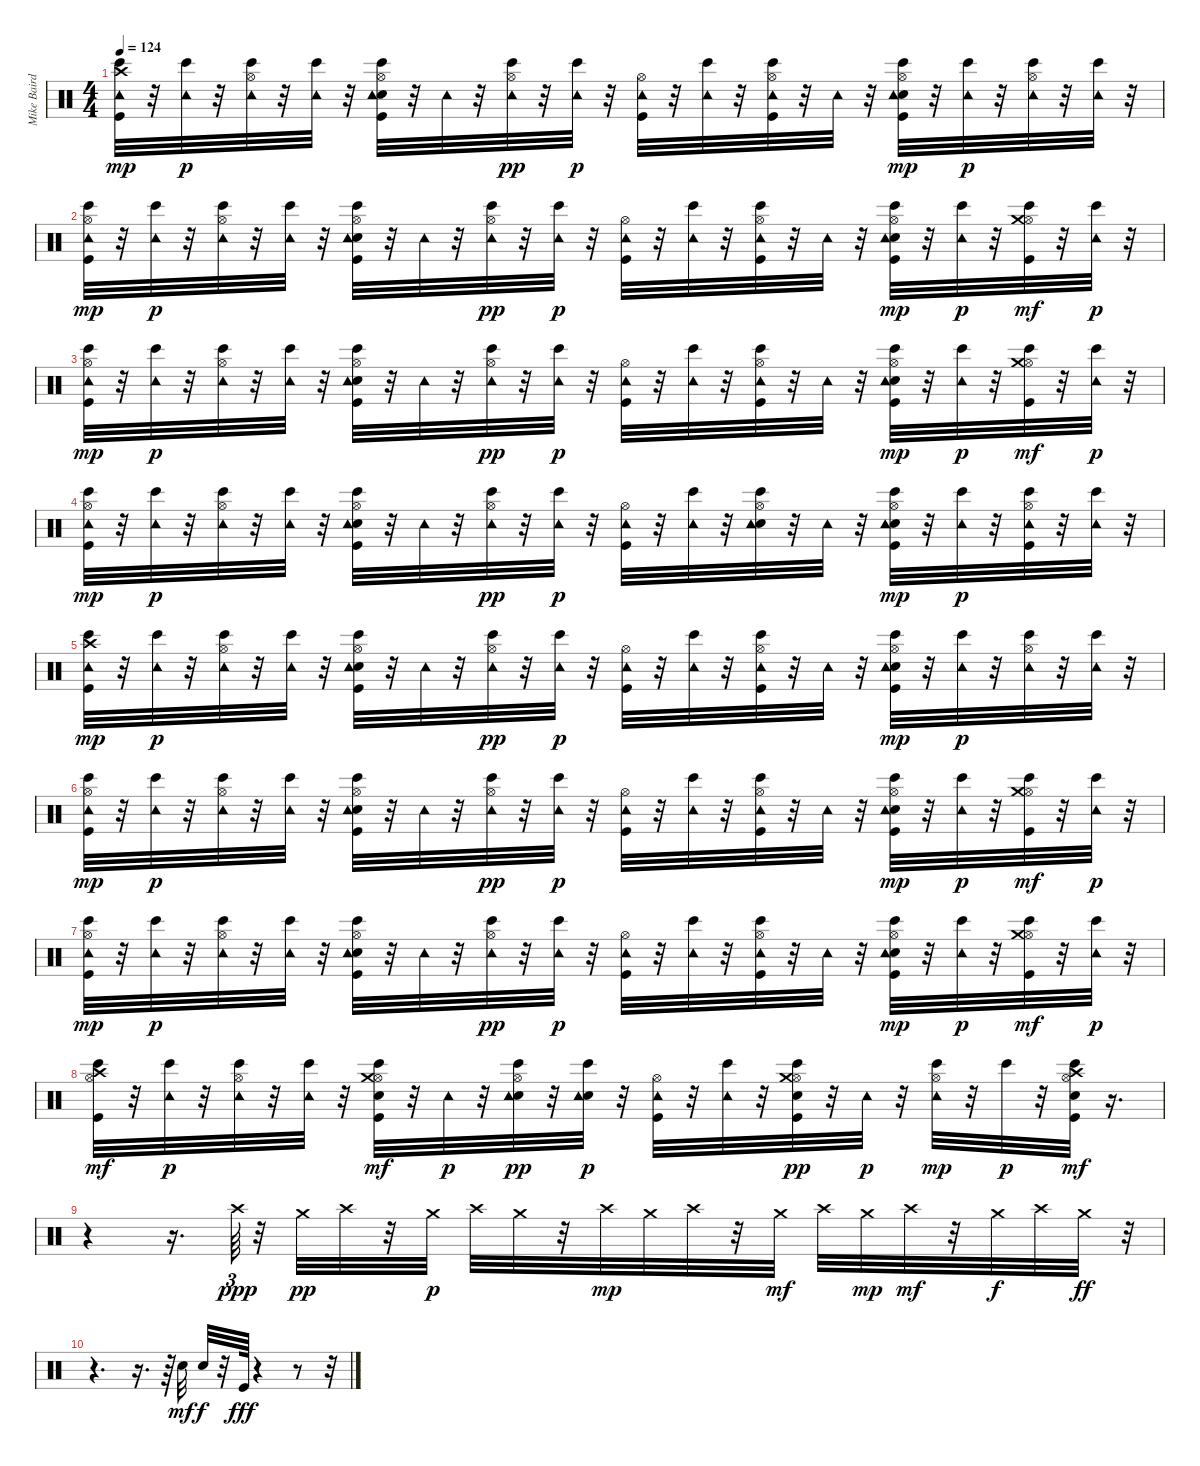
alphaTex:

\track ("Mike Baird [drums]" "Mike Baird") {instrument percussion}
\staff {score}
\articulation defaults
\ts (4 4)
\tempo 124
\clef neutral
\ks c
("Bongo High (hit)" "Kick (hit)" "Crash high (hit)" "Tambourine (hit)").32{dy mp} r.32 ("Tambourine (hit)" "Bongo High (hit)").32{dy p} r.32 ("Hi-Hat (open)" "Tambourine (hit)" "Bongo High (hit)").32 r.32 ("Tambourine (hit)" "Bongo High (hit)").32 r.32 ("Kick (hit)" "Electric Snare (hit)" "Hi-Hat (open)" "Bongo High (hit)" "Tambourine (hit)").32 r.32 "Tambourine (hit)".32 r.32 ("Hi-Hat (open)" "Tambourine (hit)" "Bongo High (hit)").32{dy pp} r.32 ("Bongo High (hit)" "Tambourine (hit)").32{dy p} r.32 ("Kick (hit)" "Hi-Hat (open)" "Tambourine (hit)").32 r.32 ("Bongo High (hit)" "Tambourine (hit)").32 r.32 ("Bongo High (hit)" "Kick (hit)" "Hi-Hat (open)" "Tambourine (hit)").32 r.32 "Tambourine (hit)".32 r.32 ("Bongo High (hit)" "Kick (hit)" "Electric Snare (hit)" "Hi-Hat (open)" "Tambourine (hit)").32{dy mp} r.32 ("Tambourine (hit)" "Bongo High (hit)").32{dy p} r.32 ("Bongo High (hit)" "Hi-Hat (open)" "Tambourine (hit)").32 r.32 ("Tambourine (hit)" "Bongo High (hit)").32 r.32 |
("Bongo High (hit)" "Kick (hit)" "Hi-Hat (open)" "Tambourine (hit)").32{dy mp} r.32 ("Tambourine (hit)" "Bongo High (hit)").32{dy p} r.32 ("Hi-Hat (open)" "Tambourine (hit)" "Bongo High (hit)").32 r.32 ("Tambourine (hit)" "Bongo High (hit)").32 r.32 ("Kick (hit)" "Electric Snare (hit)" "Hi-Hat (open)" "Bongo High (hit)" "Tambourine (hit)").32 r.32 "Tambourine (hit)".32 r.32 ("Hi-Hat (open)" "Tambourine (hit)" "Bongo High (hit)").32{dy pp} r.32 ("Bongo High (hit)" "Tambourine (hit)").32{dy p} r.32 ("Kick (hit)" "Hi-Hat (open)" "Tambourine (hit)").32 r.32 ("Bongo High (hit)" "Tambourine (hit)").32 r.32 ("Bongo High (hit)" "Kick (hit)" "Hi-Hat (open)" "Tambourine (hit)").32 r.32 "Tambourine (hit)".32 r.32 ("Bongo High (hit)" "Kick (hit)" "Electric Snare (hit)" "Hi-Hat (open)" "Tambourine (hit)").32{dy mp} r.32 ("Tambourine (hit)" "Bongo High (hit)").32{dy p} r.32 ("Bongo High (hit)" "Kick (hit)" "Hi-Hat (open)" "Crash medium (hit)").32{dy mf} r.32 ("Tambourine (hit)" "Bongo High (hit)").32{dy p} r.32 |
("Bongo High (hit)" "Kick (hit)" "Hi-Hat (open)" "Tambourine (hit)").32{dy mp} r.32 ("Tambourine (hit)" "Bongo High (hit)").32{dy p} r.32 ("Hi-Hat (open)" "Tambourine (hit)" "Bongo High (hit)").32 r.32 ("Tambourine (hit)" "Bongo High (hit)").32 r.32 ("Kick (hit)" "Electric Snare (hit)" "Hi-Hat (open)" "Bongo High (hit)" "Tambourine (hit)").32 r.32 "Tambourine (hit)".32 r.32 ("Hi-Hat (open)" "Tambourine (hit)" "Bongo High (hit)").32{dy pp} r.32 ("Bongo High (hit)" "Tambourine (hit)").32{dy p} r.32 ("Kick (hit)" "Hi-Hat (open)" "Tambourine (hit)").32 r.32 ("Bongo High (hit)" "Tambourine (hit)").32 r.32 ("Bongo High (hit)" "Kick (hit)" "Hi-Hat (open)" "Tambourine (hit)").32 r.32 "Tambourine (hit)".32 r.32 ("Bongo High (hit)" "Kick (hit)" "Electric Snare (hit)" "Hi-Hat (open)" "Tambourine (hit)").32{dy mp} r.32 ("Tambourine (hit)" "Bongo High (hit)").32{dy p} r.32 ("Bongo High (hit)" "Kick (hit)" "Hi-Hat (open)" "Crash medium (hit)").32{dy mf} r.32 ("Tambourine (hit)" "Bongo High (hit)").32{dy p} r.32 |
("Bongo High (hit)" "Kick (hit)" "Hi-Hat (open)" "Tambourine (hit)").32{dy mp} r.32 ("Tambourine (hit)" "Bongo High (hit)").32{dy p} r.32 ("Hi-Hat (open)" "Tambourine (hit)" "Bongo High (hit)").32 r.32 ("Tambourine (hit)" "Bongo High (hit)").32 r.32 ("Kick (hit)" "Electric Snare (hit)" "Hi-Hat (open)" "Bongo High (hit)" "Tambourine (hit)").32 r.32 "Tambourine (hit)".32 r.32 ("Hi-Hat (open)" "Tambourine (hit)" "Bongo High (hit)").32{dy pp} r.32 ("Bongo High (hit)" "Tambourine (hit)").32{dy p} r.32 ("Kick (hit)" "Hi-Hat (open)" "Tambourine (hit)").32 r.32 ("Bongo High (hit)" "Tambourine (hit)").32 r.32 ("Bongo High (hit)" "Electric Snare (hit)" "Hi-Hat (open)" "Tambourine (hit)").32 r.32 "Tambourine (hit)".32 r.32 ("Bongo High (hit)" "Kick (hit)" "Electric Snare (hit)" "Hi-Hat (open)" "Tambourine (hit)").32{dy mp} r.32 ("Tambourine (hit)" "Bongo High (hit)").32{dy p} r.32 ("Bongo High (hit)" "Kick (hit)" "Hi-Hat (open)" "Tambourine (hit)").32 r.32 ("Tambourine (hit)" "Bongo High (hit)").32 r.32 |
("Bongo High (hit)" "Kick (hit)" "Crash high (hit)" "Tambourine (hit)").32{dy mp} r.32 ("Tambourine (hit)" "Bongo High (hit)").32{dy p} r.32 ("Hi-Hat (open)" "Tambourine (hit)" "Bongo High (hit)").32 r.32 ("Tambourine (hit)" "Bongo High (hit)").32 r.32 ("Kick (hit)" "Electric Snare (hit)" "Hi-Hat (open)" "Bongo High (hit)" "Tambourine (hit)").32 r.32 "Tambourine (hit)".32 r.32 ("Hi-Hat (open)" "Tambourine (hit)" "Bongo High (hit)").32{dy pp} r.32 ("Bongo High (hit)" "Tambourine (hit)").32{dy p} r.32 ("Kick (hit)" "Hi-Hat (open)" "Tambourine (hit)").32 r.32 ("Bongo High (hit)" "Tambourine (hit)").32 r.32 ("Bongo High (hit)" "Kick (hit)" "Hi-Hat (open)" "Tambourine (hit)").32 r.32 "Tambourine (hit)".32 r.32 ("Bongo High (hit)" "Kick (hit)" "Electric Snare (hit)" "Hi-Hat (open)" "Tambourine (hit)").32{dy mp} r.32 ("Tambourine (hit)" "Bongo High (hit)").32{dy p} r.32 ("Bongo High (hit)" "Hi-Hat (open)" "Tambourine (hit)").32 r.32 ("Tambourine (hit)" "Bongo High (hit)").32 r.32 |
("Bongo High (hit)" "Kick (hit)" "Hi-Hat (open)" "Tambourine (hit)").32{dy mp} r.32 ("Tambourine (hit)" "Bongo High (hit)").32{dy p} r.32 ("Hi-Hat (open)" "Tambourine (hit)" "Bongo High (hit)").32 r.32 ("Tambourine (hit)" "Bongo High (hit)").32 r.32 ("Kick (hit)" "Electric Snare (hit)" "Hi-Hat (open)" "Bongo High (hit)" "Tambourine (hit)").32 r.32 "Tambourine (hit)".32 r.32 ("Hi-Hat (open)" "Tambourine (hit)" "Bongo High (hit)").32{dy pp} r.32 ("Bongo High (hit)" "Tambourine (hit)").32{dy p} r.32 ("Kick (hit)" "Hi-Hat (open)" "Tambourine (hit)").32 r.32 ("Bongo High (hit)" "Tambourine (hit)").32 r.32 ("Bongo High (hit)" "Kick (hit)" "Hi-Hat (open)" "Tambourine (hit)").32 r.32 "Tambourine (hit)".32 r.32 ("Bongo High (hit)" "Kick (hit)" "Electric Snare (hit)" "Hi-Hat (open)" "Tambourine (hit)").32{dy mp} r.32 ("Tambourine (hit)" "Bongo High (hit)").32{dy p} r.32 ("Bongo High (hit)" "Kick (hit)" "Hi-Hat (open)" "Crash medium (hit)").32{dy mf} r.32 ("Tambourine (hit)" "Bongo High (hit)").32{dy p} r.32 |
("Bongo High (hit)" "Kick (hit)" "Hi-Hat (open)" "Tambourine (hit)").32{dy mp} r.32 ("Tambourine (hit)" "Bongo High (hit)").32{dy p} r.32 ("Hi-Hat (open)" "Tambourine (hit)" "Bongo High (hit)").32 r.32 ("Tambourine (hit)" "Bongo High (hit)").32 r.32 ("Kick (hit)" "Electric Snare (hit)" "Hi-Hat (open)" "Bongo High (hit)" "Tambourine (hit)").32 r.32 "Tambourine (hit)".32 r.32 ("Hi-Hat (open)" "Tambourine (hit)" "Bongo High (hit)").32{dy pp} r.32 ("Bongo High (hit)" "Tambourine (hit)").32{dy p} r.32 ("Kick (hit)" "Hi-Hat (open)" "Tambourine (hit)").32 r.32 ("Bongo High (hit)" "Tambourine (hit)").32 r.32 ("Bongo High (hit)" "Kick (hit)" "Hi-Hat (open)" "Tambourine (hit)").32 r.32 "Tambourine (hit)".32 r.32 ("Bongo High (hit)" "Kick (hit)" "Electric Snare (hit)" "Hi-Hat (open)" "Tambourine (hit)").32{dy mp} r.32 ("Tambourine (hit)" "Bongo High (hit)").32{dy p} r.32 ("Bongo High (hit)" "Kick (hit)" "Hi-Hat (open)" "Crash medium (hit)").32{dy mf} r.32 ("Tambourine (hit)" "Bongo High (hit)").32{dy p} r.32 |
("Bongo High (hit)" "Kick (hit)" "Hi-Hat (open)" "Crash high (hit)").32{dy mf} r.32 ("Tambourine (hit)" "Bongo High (hit)").32{dy p} r.32 ("Hi-Hat (open)" "Tambourine (hit)" "Bongo High (hit)").32 r.32 ("Tambourine (hit)" "Bongo High (hit)").32 r.32 ("Kick (hit)" "Electric Snare (hit)" "Hi-Hat (open)" "Crash medium (hit)" "Bongo High (hit)").32{dy mf} r.32 "Tambourine (hit)".32{dy p} r.32 ("Electric Snare (hit)" "Hi-Hat (open)" "Tambourine (hit)" "Bongo High (hit)").32{dy pp} r.32 ("Electric Snare (hit)" "Bongo High (hit)" "Tambourine (hit)").32{dy p} r.32 ("Kick (hit)" "Hi-Hat (open)" "Tambourine (hit)").32 r.32 ("Bongo High (hit)" "Tambourine (hit)").32 r.32 ("Bongo High (hit)" "Kick (hit)" "Electric Snare (hit)" "Hi-Hat (open)" "Crash medium (hit)").32{dy pp} r.32 "Tambourine (hit)".32{dy p} r.32 ("Bongo High (hit)" "Hi-Hat (open)" "Tambourine (hit)").32{dy mp} r.32 "Bongo High (hit)".32{dy p} r.32 ("Bongo High (hit)" "Kick (hit)" "Electric Snare (hit)" "Hi-Hat (open)" "Crash high (hit)").32{dy mf} r.16{d} |
r.4 r.16{d} "Crash high (hit)".64{tu (3 2) dy ppp} r.32 "Crash medium (hit)".32{dy pp} "Crash high (hit)".32 r.32 "Crash medium (hit)".32{dy p} "Crash high (hit)".32 "Crash medium (hit)".32 r.32 "Crash high (hit)".32{dy mp} "Crash medium (hit)".32 "Crash high (hit)".32 r.32 "Crash medium (hit)".32{dy mf} "Crash high (hit)".32 "Crash medium (hit)".32{dy mp} "Crash high (hit)".32{dy mf} r.32 "Crash medium (hit)".32{dy f} "Crash high (hit)".32 "Crash medium (hit)".32{dy ff} r.32{tu (3 2)} |
r.4{d} r.16{d} r.64 "Electric Snare (hit)".32{dy mf} "Electric Snare (hit)".32{dy f} r.32 "Kick (hit)".64{dy fff} r.4 r.8 r.32
